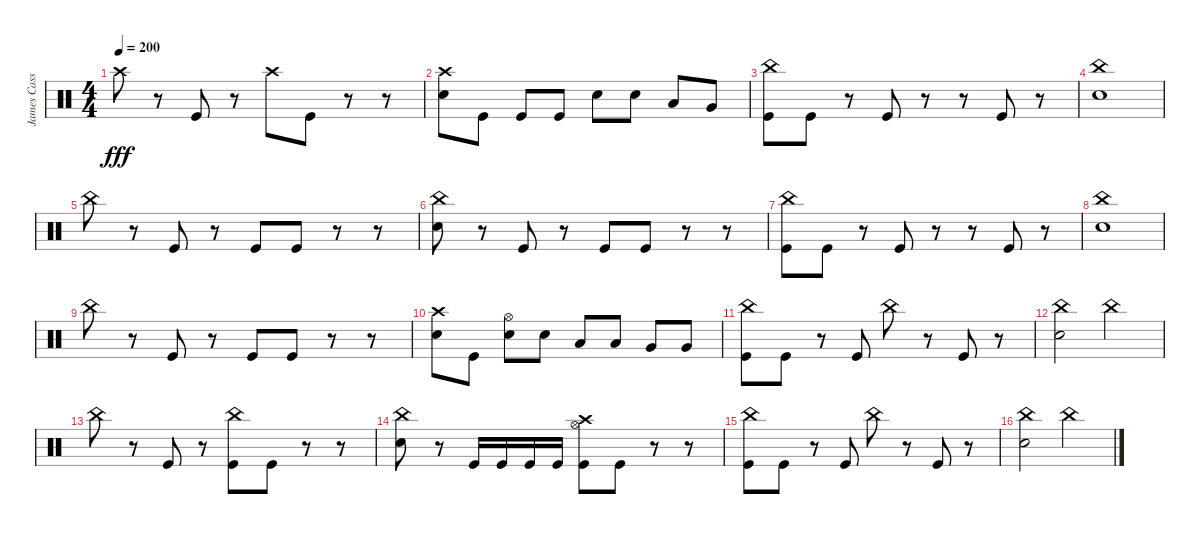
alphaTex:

\track ("James Cassells" "James Cass") {instrument percussion}
\staff {score}
\articulation defaults
\ts (4 4)
\tempo 200
\clef neutral
\ks c "Crash high (hit)".8{dy fff}
r.8 "Kick (hit)".8 r.8 "Crash high (hit)".8 "Kick (hit)".8 r.8 r.8 |
("Crash high (hit)" "Electric Snare (hit)").8 "Kick (hit)".8 "Kick (hit)".8 "Kick (hit)".8 "Electric Snare (hit)".8 "Electric Snare (hit)".8 "Low Tom (hit)".8 "Very Low Tom (hit)".8 |
("China (hit)" "Kick (hit)").8 "Kick (hit)".8 r.8 "Kick (hit)".8 r.8 r.8 "Kick (hit)".8 r.8 |
("China (hit)" "Electric Snare (hit)").1 |
"China (hit)".8 r.8 "Kick (hit)".8 r.8 "Kick (hit)".8 "Kick (hit)".8 r.8 r.8 |
("China (hit)" "Electric Snare (hit)").8 r.8 "Kick (hit)".8 r.8 "Kick (hit)".8 "Kick (hit)".8 r.8 r.8 |
("China (hit)" "Kick (hit)").8 "Kick (hit)".8 r.8 "Kick (hit)".8 r.8 r.8 "Kick (hit)".8 r.8 |
("China (hit)" "Electric Snare (hit)").1 |
"China (hit)".8 r.8 "Kick (hit)".8 r.8 "Kick (hit)".8 "Kick (hit)".8 r.8 r.8 |
("Crash high (hit)" "Electric Snare (hit)").8 "Kick (hit)".8 ("Hi-Hat (open)" "Electric Snare (hit)").8 "Electric Snare (hit)".8 "Low Tom (hit)".8 "Low Tom (hit)".8 "Very Low Tom (hit)".8 "Very Low Tom (hit)".8 |
("China (hit)" "Kick (hit)").8 "Kick (hit)".8 r.8 "Kick (hit)".8 "China (hit)".8 r.8 "Kick (hit)".8 r.8 |
("China (hit)" "Electric Snare (hit)").2 "China (hit)".2 |
"China (hit)".8 r.8 "Kick (hit)".8 r.8 ("China (hit)" "Kick (hit)").8 "Kick (hit)".8 r.8 r.8 |
("China (hit)" "Electric Snare (hit)").8 r.8 "Kick (hit)".16 "Kick (hit)".16 "Kick (hit)".16 "Kick (hit)".16 ("Crash high (hit)" "Hi-Hat (open)" "Kick (hit)").8 "Kick (hit)".8 r.8 r.8 |
("China (hit)" "Kick (hit)").8 "Kick (hit)".8 r.8 "Kick (hit)".8 "China (hit)".8 r.8 "Kick (hit)".8 r.8 |
("China (hit)" "Electric Snare (hit)").2 "China (hit)".2
